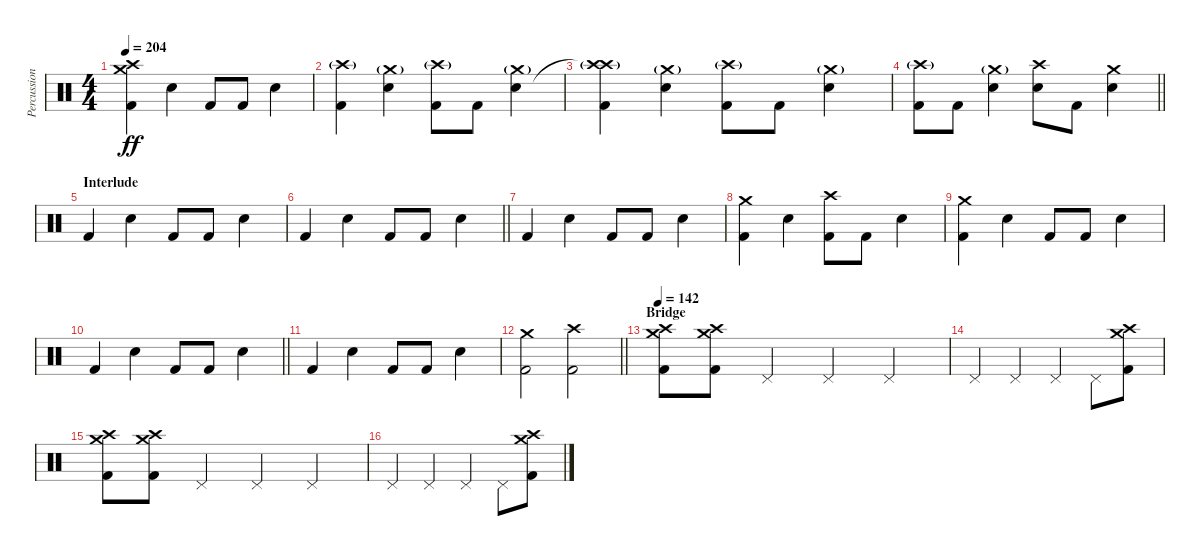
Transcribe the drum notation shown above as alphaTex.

\track ("Percussion" "Percussion") {instrument percussion}
\staff {score}
\articulation defaults
\ts (4 4)
\tempo 204
\clef neutral
\ks c
("Crash medium (hit)"{t} "Crash high (hit)"{t} "Kick (hit) 2"{t}).4{dy ff} "Electric Snare (hit)".4 "Kick (hit) 2".8 "Kick (hit) 2".8 "Electric Snare (hit)".4 |
("Crash high (hit)"{g} "Kick (hit) 2").4 ("Crash medium (hit)"{g} "Electric Snare (hit)").4 ("Crash high (hit)"{g} "Kick (hit) 2").8 "Kick (hit) 2".8 ("Crash medium (hit)"{g} "Electric Snare (hit)").4 |
("Crash high (hit)"{g} "Crash high (hit)"{t} "Kick (hit) 2").4 ("Crash medium (hit)"{g} "Electric Snare (hit)").4 ("Crash high (hit)"{g} "Kick (hit) 2").8 "Kick (hit) 2".8 ("Crash medium (hit)"{g} "Electric Snare (hit)").4 |
\barLineRight lightlight
("Crash high (hit)"{g} "Kick (hit) 2").8 "Kick (hit) 2".8 ("Crash medium (hit)"{g} "Electric Snare (hit)").4 ("Crash high (hit)" "Electric Snare (hit)").8 "Kick (hit) 2".8 ("Crash medium (hit)" "Electric Snare (hit)").4 |
\section ("" "Interlude")
"Kick (hit) 2".4 "Electric Snare (hit)".4 "Kick (hit) 2".8 "Kick (hit) 2".8 "Electric Snare (hit)".4 |
\barLineRight lightlight "Kick (hit) 2".4 "Electric Snare (hit)".4 "Kick (hit) 2".8 "Kick (hit) 2".8 "Electric Snare (hit)".4
|
"Kick (hit) 2".4 "Electric Snare (hit)".4 "Kick (hit) 2".8 "Kick (hit) 2".8 "Electric Snare (hit)".4 |
("Crash medium (hit)" "Kick (hit) 2").4 "Electric Snare (hit)".4 ("Crash high (hit)" "Kick (hit) 2").8 "Kick (hit) 2".8 "Electric Snare (hit)".4 |
("Crash medium (hit)" "Kick (hit) 2").4 "Electric Snare (hit)".4 "Kick (hit) 2".8 "Kick (hit) 2".8 "Electric Snare (hit)".4 |
\barLineRight lightlight "Kick (hit) 2".4 "Electric Snare (hit)".4 "Kick (hit) 2".8 "Kick (hit) 2".8 "Electric Snare (hit)".4
|
"Kick (hit) 2".4 "Electric Snare (hit)".4 "Kick (hit) 2".8 "Kick (hit) 2".8 "Electric Snare (hit)".4 |
\barLineRight lightlight
("Crash medium (hit)" "Kick (hit) 2").2 ("Crash high (hit)" "Kick (hit) 2").2 |
\section ("" "Bridge")
\tempo 142
("Crash medium (hit)" "Crash high (hit)" "Kick (hit) 2").8 ("Crash medium (hit)" "Crash high (hit)" "Kick (hit) 2").8 "Pedal Hi-Hat (hit)".4 "Pedal Hi-Hat (hit)".4 "Pedal Hi-Hat (hit)".4 |
"Pedal Hi-Hat (hit)".4 "Pedal Hi-Hat (hit)".4 "Pedal Hi-Hat (hit)".4 "Pedal Hi-Hat (hit)".8 ("Crash medium (hit)" "Crash high (hit)" "Kick (hit) 2").8 |
("Crash medium (hit)" "Crash high (hit)" "Kick (hit) 2").8 ("Crash medium (hit)" "Crash high (hit)" "Kick (hit) 2").8 "Pedal Hi-Hat (hit)".4 "Pedal Hi-Hat (hit)".4 "Pedal Hi-Hat (hit)".4 |
"Pedal Hi-Hat (hit)".4 "Pedal Hi-Hat (hit)".4 "Pedal Hi-Hat (hit)".4 "Pedal Hi-Hat (hit)".8 ("Crash medium (hit)" "Crash high (hit)" "Kick (hit) 2").8
